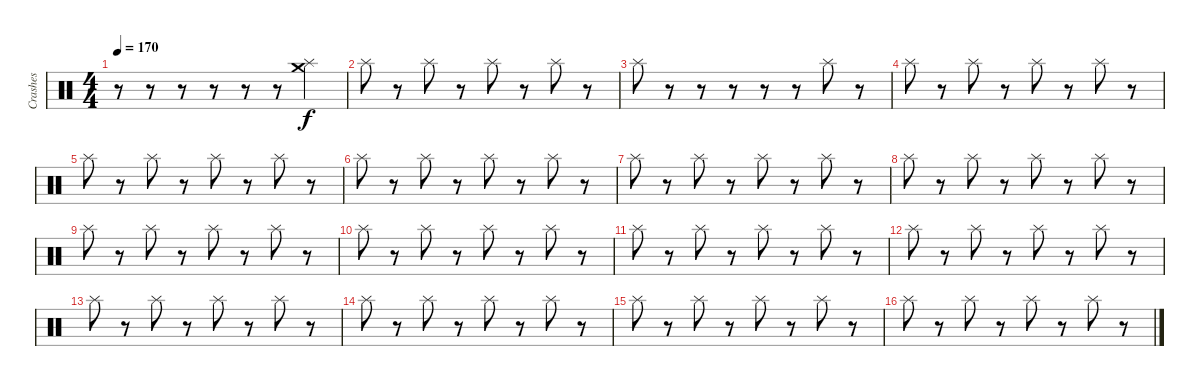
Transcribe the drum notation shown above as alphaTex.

\track ("Crashes" "Crashes") {instrument percussion}
\staff {score}
\articulation defaults
\ts (4 4)
\tempo 170
\clef neutral
\ks c
r.8{dy f} r.8 r.8 r.8 r.8 r.8 ("Crash medium (hit)" "Splash (hit)").4 |
"Splash (hit)".8 r.8 "Splash (hit)".8 r.8 "Splash (hit)".8 r.8 "Splash (hit)".8 r.8 |
"Splash (hit)".8 r.8 r.8 r.8 r.8 r.8 "Splash (hit)".8 r.8 |
"Splash (hit)".8 r.8 "Splash (hit)".8 r.8 "Splash (hit)".8 r.8 "Splash (hit)".8 r.8 |
"Splash (hit)".8 r.8 "Splash (hit)".8 r.8 "Splash (hit)".8 r.8 "Splash (hit)".8 r.8 |
"Splash (hit)".8 r.8 "Splash (hit)".8 r.8 "Splash (hit)".8 r.8 "Splash (hit)".8 r.8 |
"Splash (hit)".8 r.8 "Splash (hit)".8 r.8 "Splash (hit)".8 r.8 "Splash (hit)".8 r.8 |
"Splash (hit)".8 r.8 "Splash (hit)".8 r.8 "Splash (hit)".8 r.8 "Splash (hit)".8 r.8 |
"Splash (hit)".8 r.8 "Splash (hit)".8 r.8 "Splash (hit)".8 r.8 "Splash (hit)".8 r.8 |
"Splash (hit)".8 r.8 "Splash (hit)".8 r.8 "Splash (hit)".8 r.8 "Splash (hit)".8 r.8 |
"Splash (hit)".8 r.8 "Splash (hit)".8 r.8 "Splash (hit)".8 r.8 "Splash (hit)".8 r.8 |
"Splash (hit)".8 r.8 "Splash (hit)".8 r.8 "Splash (hit)".8 r.8 "Splash (hit)".8 r.8 |
"Splash (hit)".8 r.8 "Splash (hit)".8 r.8 "Splash (hit)".8 r.8 "Splash (hit)".8 r.8 |
"Splash (hit)".8 r.8 "Splash (hit)".8 r.8 "Splash (hit)".8 r.8 "Splash (hit)".8 r.8 |
"Splash (hit)".8 r.8 "Splash (hit)".8 r.8 "Splash (hit)".8 r.8 "Splash (hit)".8 r.8 |
"Splash (hit)".8 r.8 "Splash (hit)".8 r.8 "Splash (hit)".8 r.8 "Splash (hit)".8 r.8
